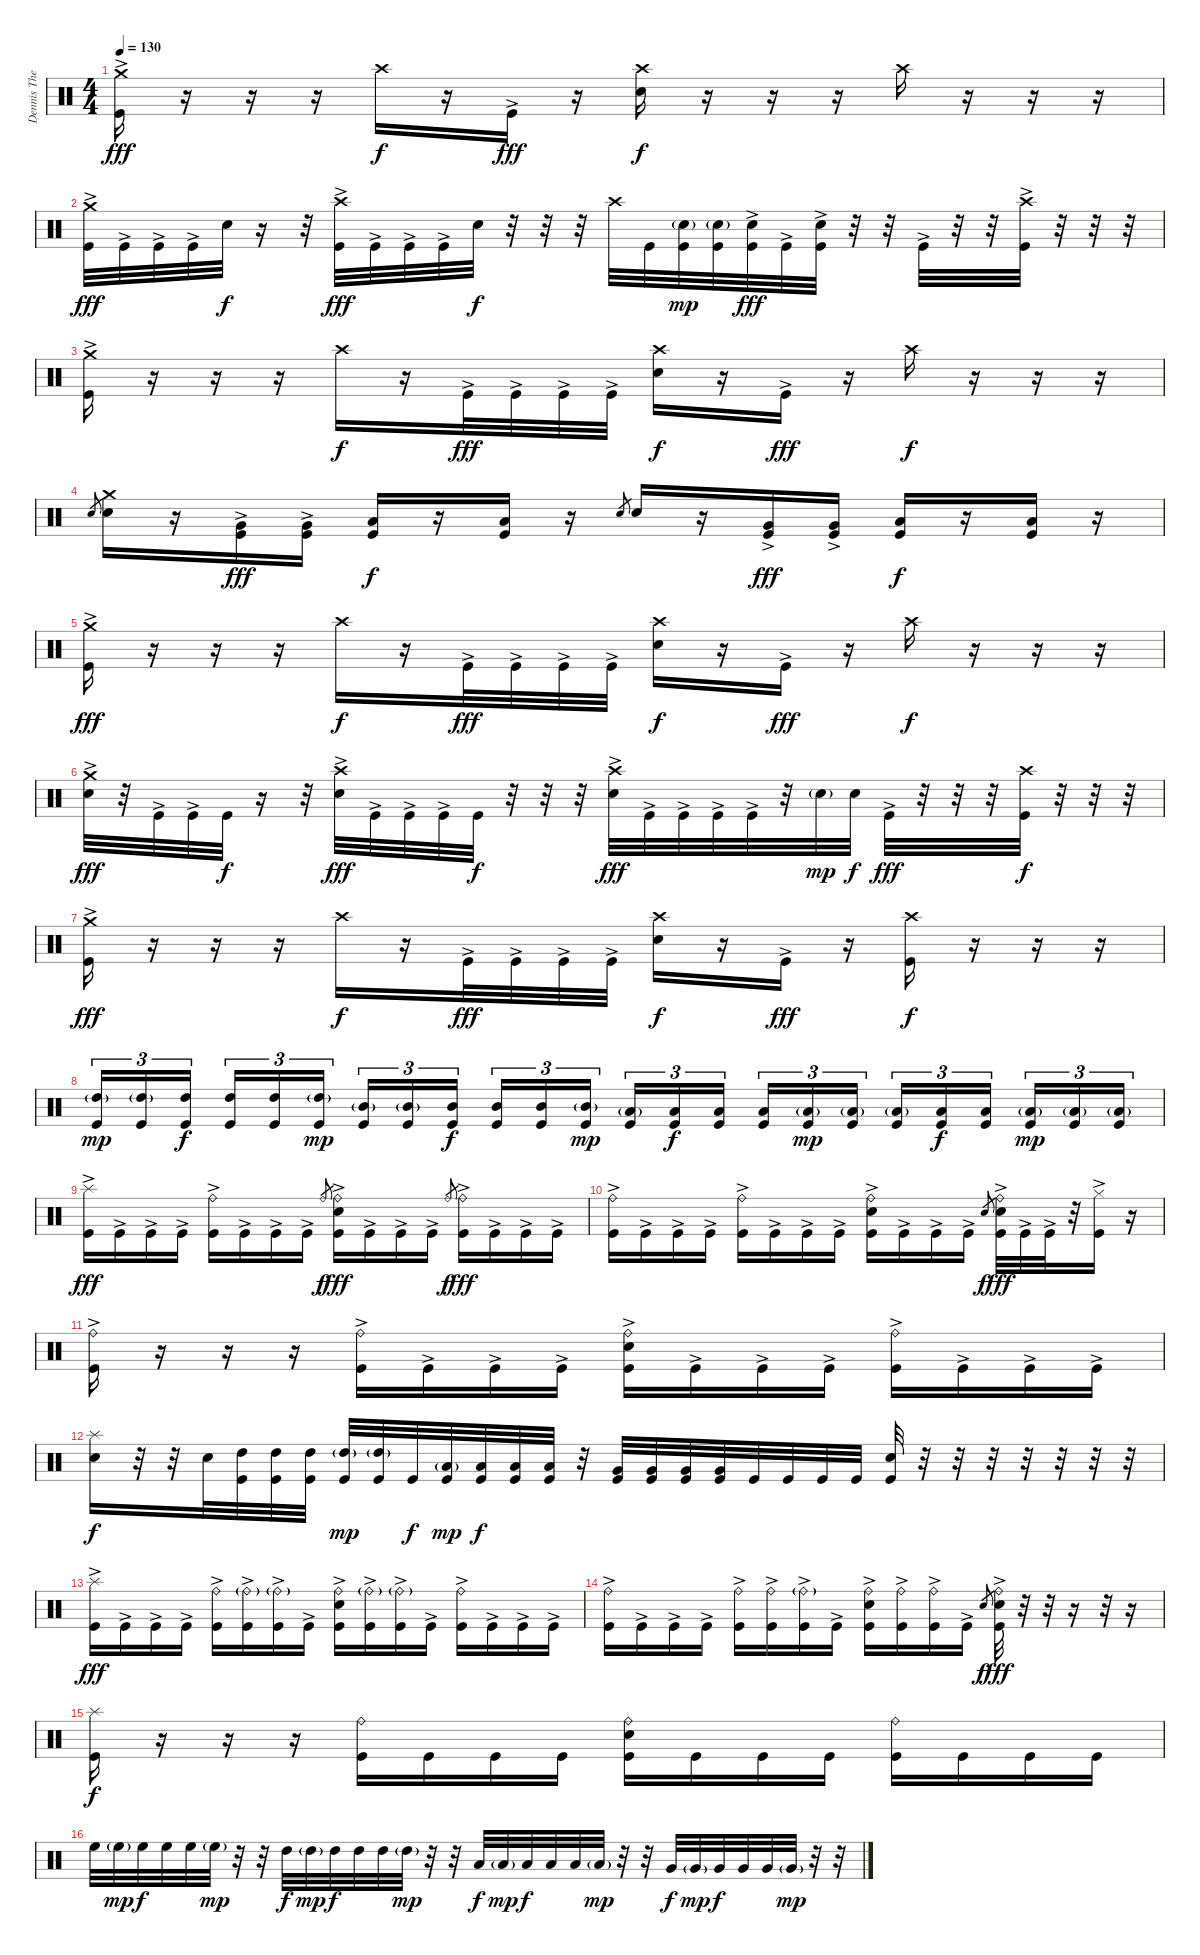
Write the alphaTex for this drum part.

\track ("Dennis The Menace" "Dennis The") {instrument percussion}
\staff {score}
\articulation defaults
\ts (4 4)
\tempo 130
\clef neutral
\ks c
("Crash medium (hit)" "Kick (hit)"{ac}).16{dy fff} r.16 r.16 r.16 "Crash high (hit)".16{dy f} r.16 "Kick (hit)"{ac}.16{dy fff} r.16 ("Crash high (hit)" "Electric Snare (hit)").16{dy f} r.16 r.16 r.16 "Crash high (hit)".16 r.16 r.16 r.16 |
("Crash medium (hit)" "Kick (hit)"{ac}).32{dy fff} "Kick (hit)"{ac}.32 "Kick (hit)"{ac}.32 "Kick (hit)"{ac}.32 "Electric Snare (hit)".32{dy f} r.16 r.32 ("Crash high (hit)" "Kick (hit)"{ac}).32{dy fff} "Kick (hit)"{ac}.32 "Kick (hit)"{ac}.32 "Kick (hit)"{ac}.32 "Electric Snare (hit)".32{dy f} r.32 r.32 r.32 "Crash high (hit)".32 "Kick (hit)".32 ("Electric Snare (hit)"{g} "Kick (hit)").32{dy mp} ("Electric Snare (hit)"{g} "Kick (hit)").32 ("Electric Snare (hit)" "Kick (hit)"{ac}).32{dy fff} "Kick (hit)"{ac}.32 ("Electric Snare (hit)" "Kick (hit)"{ac}).32 r.32 r.32 "Kick (hit)"{ac}.32 r.32 r.32 ("Crash high (hit)" "Kick (hit)"{ac}).32 r.32 r.32 r.32 |
("Crash medium (hit)" "Kick (hit)"{ac}).16 r.16 r.16 r.16 "Crash high (hit)".16{dy f} r.16 "Kick (hit)"{ac}.32{dy fff} "Kick (hit)"{ac}.32 "Kick (hit)"{ac}.32 "Kick (hit)"{ac}.32 ("Crash high (hit)" "Electric Snare (hit)").16{dy f} r.16 "Kick (hit)"{ac}.16{dy fff} r.16 "Crash high (hit)".16{dy f} r.16 r.16 r.16 |
"Electric Snare (hit)".8{gr} ("Crash medium (hit)" "Electric Snare (hit)").16 r.16 ("Very Low Tom (hit)" "Kick (hit)"{ac}).16{dy fff} ("Very Low Tom (hit)" "Kick (hit)"{ac}).16 ("Low Floor Tom (hit)" "Kick (hit)").16{dy f} r.16 ("Low Floor Tom (hit)" "Kick (hit)").16 r.16 "Electric Snare (hit)".8{gr} "Electric Snare (hit)".16 r.16 ("Very Low Tom (hit)" "Kick (hit)"{ac}).16{dy fff} ("Very Low Tom (hit)" "Kick (hit)"{ac}).16 ("Low Floor Tom (hit)" "Kick (hit)").16{dy f} r.16 ("Low Floor Tom (hit)" "Kick (hit)").16 r.16 |
("Crash medium (hit)" "Kick (hit)"{ac}).16{dy fff} r.16 r.16 r.16 "Crash high (hit)".16{dy f} r.16 "Kick (hit)"{ac}.32{dy fff} "Kick (hit)"{ac}.32 "Kick (hit)"{ac}.32 "Kick (hit)"{ac}.32 ("Crash high (hit)" "Electric Snare (hit)").16{dy f} r.16 "Kick (hit)"{ac}.16{dy fff} r.16 "Crash high (hit)".16{dy f} r.16 r.16 r.16 |
("Crash medium (hit)" "Electric Snare (hit)"{ac}).32{dy fff} r.32 "Kick (hit)"{ac}.32 "Kick (hit)"{ac}.32 "Kick (hit)".32{dy f} r.16 r.32 ("Crash high (hit)" "Electric Snare (hit)"{ac}).32{dy fff} "Kick (hit)"{ac}.32 "Kick (hit)"{ac}.32 "Kick (hit)"{ac}.32 "Kick (hit)".32{dy f} r.32 r.32 r.32 ("Crash high (hit)" "Electric Snare (hit)"{ac}).32{dy fff} "Kick (hit)"{ac}.32 "Kick (hit)"{ac}.32 "Kick (hit)"{ac}.32 "Kick (hit)"{ac}.32 r.32 "Electric Snare (hit)"{g}.32{dy mp} "Electric Snare (hit)".32{dy f} "Kick (hit)"{ac}.32{dy fff} r.32 r.32 r.32 ("Crash high (hit)" "Kick (hit)").32{dy f} r.32 r.32 r.32 |
("Crash medium (hit)" "Kick (hit)"{ac}).16{dy fff} r.16 r.16 r.16 "Crash high (hit)".16{dy f} r.16 "Kick (hit)"{ac}.32{dy fff} "Kick (hit)"{ac}.32 "Kick (hit)"{ac}.32 "Kick (hit)"{ac}.32 ("Crash high (hit)" "Electric Snare (hit)").16{dy f} r.16 "Kick (hit)"{ac}.16{dy fff} r.16 ("Crash high (hit)" "Kick (hit)").16{dy f} r.16 r.16 r.16 |
("High Tom (hit)"{g} "Kick (hit)").16{tu (3 2) dy mp} ("High Tom (hit)"{g} "Kick (hit)").16{tu (3 2)} ("High Tom (hit)" "Kick (hit)").16{tu (3 2) dy f} ("High Tom (hit)" "Kick (hit)").16{tu (3 2)} ("High Tom (hit)" "Kick (hit)").16{tu (3 2)} ("High Tom (hit)"{g} "Kick (hit)").16{tu (3 2) dy mp} ("Mid Tom (hit)"{g} "Kick (hit)").16{tu (3 2)} ("Mid Tom (hit)"{g} "Kick (hit)").16{tu (3 2)} ("Mid Tom (hit)" "Kick (hit)").16{tu (3 2) dy f} ("Mid Tom (hit)" "Kick (hit)").16{tu (3 2)} ("Mid Tom (hit)" "Kick (hit)").16{tu (3 2)} ("Mid Tom (hit)"{g} "Kick (hit)").16{tu (3 2) dy mp} ("Low Tom (hit)"{g} "Kick (hit)").16{tu (3 2)} ("Low Tom (hit)" "Kick (hit)").16{tu (3 2) dy f} ("Low Tom (hit)" "Kick (hit)").16{tu (3 2)} ("Low Tom (hit)" "Kick (hit)").16{tu (3 2)} ("Low Tom (hit)"{g} "Kick (hit)").16{tu (3 2) dy mp} ("Low Tom (hit)"{g} "Kick (hit)").16{tu (3 2)} ("Low Floor Tom (hit)"{g} "Kick (hit)").16{tu (3 2)} ("Low Floor Tom (hit)" "Kick (hit)").16{tu (3 2) dy f} ("Low Floor Tom (hit)" "Kick (hit)").16{tu (3 2)} ("Low Floor Tom (hit)"{g} "Kick (hit)").16{tu (3 2) dy mp} ("Low Floor Tom (hit)"{g} "Kick (hit)").16{tu (3 2)} ("Low Floor Tom (hit)"{g} "Kick (hit)").16{tu (3 2)} |
("Splash (hit)" "Kick (hit)"{ac}).16{dy fff} "Kick (hit)"{ac}.16 "Kick (hit)"{ac}.16 "Kick (hit)"{ac}.16 ("Ride (bell)" "Kick (hit)"{ac}).16 "Kick (hit)"{ac}.16 "Kick (hit)"{ac}.16 "Kick (hit)"{ac}.16 "Ride (bell)".8{gr dy f} ("Ride (bell)" "Electric Snare (hit)" "Kick (hit)"{ac}).16{dy fff} "Kick (hit)"{ac}.16 "Kick (hit)"{ac}.16 "Kick (hit)"{ac}.16 "Ride (bell)".8{gr dy f} ("Ride (bell)" "Kick (hit)"{ac}).16{dy fff} "Kick (hit)"{ac}.16 "Kick (hit)"{ac}.16 "Kick (hit)"{ac}.16 |
("Ride (bell)" "Kick (hit)"{ac}).16 "Kick (hit)"{ac}.16 "Kick (hit)"{ac}.16 "Kick (hit)"{ac}.16 ("Ride (bell)" "Kick (hit)"{ac}).16 "Kick (hit)"{ac}.16 "Kick (hit)"{ac}.16 "Kick (hit)"{ac}.16 ("Ride (bell)" "Electric Snare (hit)"{ac} "Kick (hit)"{ac}).16 "Kick (hit)"{ac}.16 "Kick (hit)"{ac}.16 "Kick (hit)"{ac}.16 "Electric Snare (hit)".8{gr dy f} ("Ride (bell)" "Electric Snare (hit)"{ac} "Kick (hit)"{ac}).32{dy fff} "Kick (hit)"{ac}.32 "Kick (hit)"{ac}.32 r.32 ("Hi-Hat (closed)" "Kick (hit)"{ac}).16 r.16 |
("Ride (bell)" "Kick (hit)"{ac}).16 r.16 r.16 r.16 ("Ride (bell)" "Kick (hit)"{ac}).16 "Kick (hit)"{ac}.16 "Kick (hit)"{ac}.16 "Kick (hit)"{ac}.16 ("Ride (bell)" "Electric Snare (hit)" "Kick (hit)"{ac}).16 "Kick (hit)"{ac}.16 "Kick (hit)"{ac}.16 "Kick (hit)"{ac}.16 ("Ride (bell)" "Kick (hit)"{ac}).16 "Kick (hit)"{ac}.16 "Kick (hit)"{ac}.16 "Kick (hit)"{ac}.16 |
("Splash (hit)" "Electric Snare (hit)").16{dy f} r.32 r.32 "Electric Snare (hit)".32 ("High Tom (hit)" "Kick (hit)").32 ("High Tom (hit)" "Kick (hit)").32 ("High Tom (hit)" "Kick (hit)").32 ("High Tom (hit)"{g} "Kick (hit)").32{dy mp} ("High Tom (hit)"{g} "Kick (hit)").32 "Kick (hit)".32{dy f} ("Low Tom (hit)"{g} "Kick (hit)").32{dy mp} ("Low Tom (hit)" "Kick (hit)").32{dy f} ("Low Tom (hit)" "Kick (hit)").32 ("Low Tom (hit)" "Kick (hit)").32 r.32 ("Very Low Tom (hit)" "Kick (hit)").32 ("Very Low Tom (hit)" "Kick (hit)").32 ("Very Low Tom (hit)" "Kick (hit)").32 ("Very Low Tom (hit)" "Kick (hit)").32 "Kick (hit)".32 "Kick (hit)".32 "Kick (hit)".32 "Kick (hit)".32 ("Electric Snare (hit)" "Kick (hit)").32 r.32 r.32 r.32 r.32 r.32 r.32 r.32 |
("Splash (hit)" "Kick (hit)"{ac}).16{dy fff} "Kick (hit)"{ac}.16 "Kick (hit)"{ac}.16 "Kick (hit)"{ac}.16 ("Ride (bell)" "Kick (hit)"{ac}).16 ("Ride (bell)"{g} "Kick (hit)"{ac}).16 ("Ride (bell)"{g} "Kick (hit)"{ac}).16 "Kick (hit)"{ac}.16 ("Ride (bell)" "Electric Snare (hit)" "Kick (hit)"{ac}).16 ("Ride (bell)"{g} "Kick (hit)"{ac}).16 ("Ride (bell)"{g} "Kick (hit)"{ac}).16 "Kick (hit)"{ac}.16 ("Ride (bell)" "Kick (hit)"{ac}).16 "Kick (hit)"{ac}.16 "Kick (hit)"{ac}.16 "Kick (hit)"{ac}.16 |
("Ride (bell)" "Kick (hit)"{ac}).16 "Kick (hit)"{ac}.16 "Kick (hit)"{ac}.16 "Kick (hit)"{ac}.16 ("Ride (bell)" "Kick (hit)"{ac}).16 ("Ride (bell)" "Kick (hit)"{ac}).16 ("Ride (bell)"{g} "Kick (hit)"{ac}).16 "Kick (hit)"{ac}.16 ("Ride (bell)" "Electric Snare (hit)"{ac} "Kick (hit)"{ac}).16 ("Ride (bell)" "Kick (hit)"{ac}).16 ("Ride (bell)" "Kick (hit)"{ac}).16 "Kick (hit)"{ac}.16 "Electric Snare (hit)".8{gr dy f} ("Ride (bell)" "Electric Snare (hit)"{ac} "Kick (hit)"{ac}).32{dy fff} r.32 r.32 r.16 r.32 r.16 |
("Splash (hit)" "Kick (hit)").16{dy f} r.16 r.16 r.16 ("Ride (bell)" "Kick (hit)").16 "Kick (hit)".16 "Kick (hit)".16 "Kick (hit)".16 ("Ride (bell)" "Electric Snare (hit)" "Kick (hit)").16 "Kick (hit)".16 "Kick (hit)".16 "Kick (hit)".16 ("Ride (bell)" "Kick (hit)").16 "Kick (hit)".16 "Kick (hit)".16 "Kick (hit)".16 |
"High Floor Tom (hit)".32 "High Floor Tom (hit)"{g}.32{dy mp} "High Floor Tom (hit)".32{dy f} "High Floor Tom (hit)".32 "High Floor Tom (hit)".32 "High Floor Tom (hit)"{g}.32{dy mp} r.32 r.32 "High Tom (hit)".32{dy f} "High Tom (hit)"{g}.32{dy mp} "High Tom (hit)".32{dy f} "High Tom (hit)".32 "High Tom (hit)".32 "High Tom (hit)"{g}.32{dy mp} r.32 r.32 "Low Tom (hit)".32{dy f} "Low Tom (hit)"{g}.32{dy mp} "Low Tom (hit)".32{dy f} "Low Tom (hit)".32 "Low Tom (hit)".32 "Low Tom (hit)"{g}.32{dy mp} r.32 r.32 "Very Low Tom (hit)".32{dy f} "Very Low Tom (hit)"{g}.32{dy mp} "Very Low Tom (hit)".32{dy f} "Very Low Tom (hit)".32 "Very Low Tom (hit)".32 "Very Low Tom (hit)"{g}.32{dy mp} r.32 r.32
